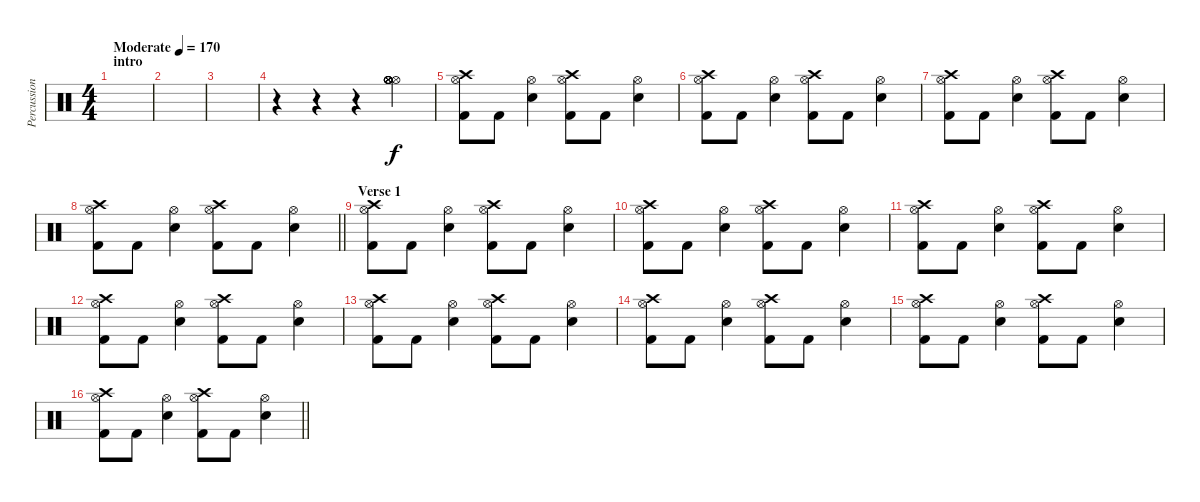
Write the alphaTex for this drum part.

\track ("Percussion" "Percussion") {instrument percussion}
\staff {score}
\articulation defaults
\ts (4 4)
\section ("" "intro")
\tempo (170 "Moderate")
\clef neutral
\ks c
|
|
|
r.4 r.4 r.4 ("Hi-Hat (open)" "Hi-Hat (open)" "Hi-Hat (open)" "Hi-Hat (open)" "Hi-Hat (open)" "Hi-Hat (open)").4 |
("Crash high (hit)" "Hi-Hat (open)" "Kick (hit) 2").8 "Kick (hit) 2".8 ("Hi-Hat (open)" "Electric Snare (hit)").4 ("Crash high (hit)" "Hi-Hat (open)" "Kick (hit) 2").8 "Kick (hit) 2".8 ("Hi-Hat (open)" "Electric Snare (hit)").4 |
("Crash high (hit)" "Hi-Hat (open)" "Kick (hit) 2").8 "Kick (hit) 2".8 ("Hi-Hat (open)" "Electric Snare (hit)").4 ("Crash high (hit)" "Hi-Hat (open)" "Kick (hit) 2").8 "Kick (hit) 2".8 ("Hi-Hat (open)" "Electric Snare (hit)").4 |
("Crash high (hit)" "Hi-Hat (open)" "Kick (hit) 2").8 "Kick (hit) 2".8 ("Hi-Hat (open)" "Electric Snare (hit)").4 ("Crash high (hit)" "Hi-Hat (open)" "Kick (hit) 2").8 "Kick (hit) 2".8 ("Hi-Hat (open)" "Electric Snare (hit)").4 |
\barLineRight lightlight
("Crash high (hit)" "Hi-Hat (open)" "Kick (hit) 2").8 "Kick (hit) 2".8 ("Hi-Hat (open)" "Electric Snare (hit)").4 ("Crash high (hit)" "Hi-Hat (open)" "Kick (hit) 2").8 "Kick (hit) 2".8 ("Hi-Hat (open)" "Electric Snare (hit)").4 |
\section ("" "Verse 1")
("Crash high (hit)" "Hi-Hat (open)" "Kick (hit) 2").8 "Kick (hit) 2".8 ("Hi-Hat (open)" "Electric Snare (hit)").4 ("Crash high (hit)" "Hi-Hat (open)" "Kick (hit) 2").8 "Kick (hit) 2".8 ("Hi-Hat (open)" "Electric Snare (hit)").4 |
("Crash high (hit)" "Hi-Hat (open)" "Kick (hit) 2").8 "Kick (hit) 2".8 ("Hi-Hat (open)" "Electric Snare (hit)").4 ("Crash high (hit)" "Hi-Hat (open)" "Kick (hit) 2").8 "Kick (hit) 2".8 ("Hi-Hat (open)" "Electric Snare (hit)").4 |
("Crash high (hit)" "Hi-Hat (open)" "Kick (hit) 2").8 "Kick (hit) 2".8 ("Hi-Hat (open)" "Electric Snare (hit)").4 ("Crash high (hit)" "Hi-Hat (open)" "Kick (hit) 2").8 "Kick (hit) 2".8 ("Hi-Hat (open)" "Electric Snare (hit)").4 |
("Crash high (hit)" "Hi-Hat (open)" "Kick (hit) 2").8 "Kick (hit) 2".8 ("Hi-Hat (open)" "Electric Snare (hit)").4 ("Crash high (hit)" "Hi-Hat (open)" "Kick (hit) 2").8 "Kick (hit) 2".8 ("Hi-Hat (open)" "Electric Snare (hit)").4 |
("Crash high (hit)" "Hi-Hat (open)" "Kick (hit) 2").8 "Kick (hit) 2".8 ("Hi-Hat (open)" "Electric Snare (hit)").4 ("Crash high (hit)" "Hi-Hat (open)" "Kick (hit) 2").8 "Kick (hit) 2".8 ("Hi-Hat (open)" "Electric Snare (hit)").4 |
("Crash high (hit)" "Hi-Hat (open)" "Kick (hit) 2").8 "Kick (hit) 2".8 ("Hi-Hat (open)" "Electric Snare (hit)").4 ("Crash high (hit)" "Hi-Hat (open)" "Kick (hit) 2").8 "Kick (hit) 2".8 ("Hi-Hat (open)" "Electric Snare (hit)").4 |
("Crash high (hit)" "Hi-Hat (open)" "Kick (hit) 2").8 "Kick (hit) 2".8 ("Hi-Hat (open)" "Electric Snare (hit)").4 ("Crash high (hit)" "Hi-Hat (open)" "Kick (hit) 2").8 "Kick (hit) 2".8 ("Hi-Hat (open)" "Electric Snare (hit)").4 |
\barLineRight lightlight
("Crash high (hit)" "Hi-Hat (open)" "Kick (hit) 2").8 "Kick (hit) 2".8 ("Hi-Hat (open)" "Electric Snare (hit)").4 ("Crash high (hit)" "Hi-Hat (open)" "Kick (hit) 2").8 "Kick (hit) 2".8 ("Hi-Hat (open)" "Electric Snare (hit)").4
